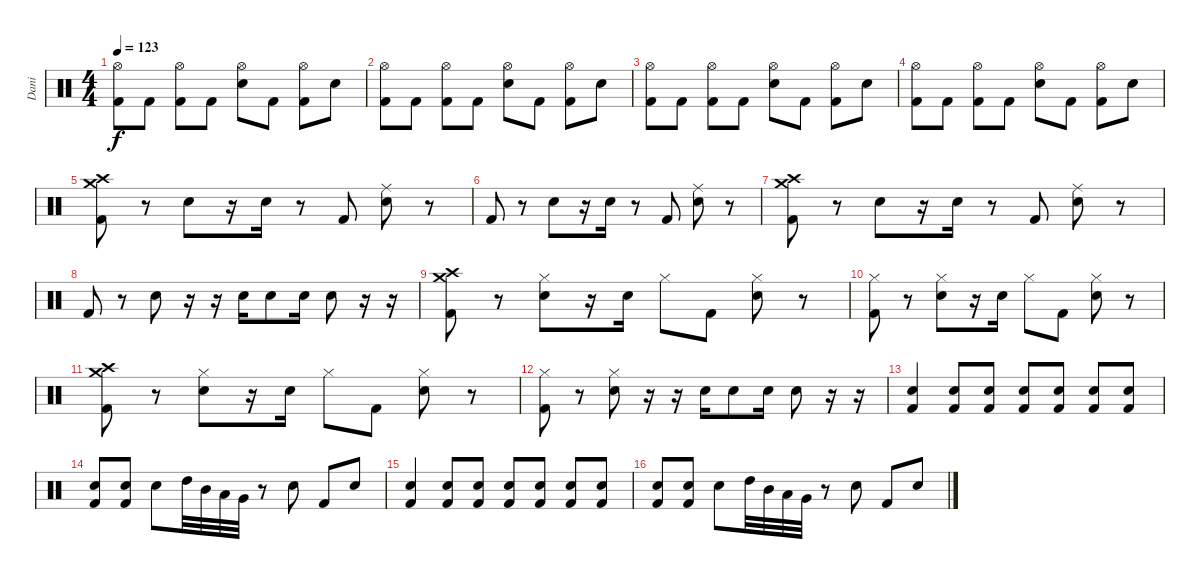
\track ("Dani" "Dani") {instrument percussion}
\staff {score}
\articulation defaults
\ts (4 4)
\tempo 123
\clef neutral
\ks c
("Hi-Hat (open)" "Kick (hit) 2").8{dy f} "Kick (hit) 2".8 ("Hi-Hat (open)" "Kick (hit) 2").8 "Kick (hit) 2".8 ("Hi-Hat (open)" "Electric Snare (hit)").8 "Kick (hit) 2".8 ("Hi-Hat (open)" "Kick (hit) 2").8 "Electric Snare (hit)".8 |
("Hi-Hat (open)" "Kick (hit) 2").8 "Kick (hit) 2".8 ("Hi-Hat (open)" "Kick (hit) 2").8 "Kick (hit) 2".8 ("Hi-Hat (open)" "Electric Snare (hit)").8 "Kick (hit) 2".8 ("Hi-Hat (open)" "Kick (hit) 2").8 "Electric Snare (hit)".8 |
("Hi-Hat (open)" "Kick (hit) 2").8 "Kick (hit) 2".8 ("Hi-Hat (open)" "Kick (hit) 2").8 "Kick (hit) 2".8 ("Hi-Hat (open)" "Electric Snare (hit)").8 "Kick (hit) 2".8 ("Hi-Hat (open)" "Kick (hit) 2").8 "Electric Snare (hit)".8 |
("Hi-Hat (open)" "Kick (hit) 2").8 "Kick (hit) 2".8 ("Hi-Hat (open)" "Kick (hit) 2").8 "Kick (hit) 2".8 ("Hi-Hat (open)" "Electric Snare (hit)").8 "Kick (hit) 2".8 ("Hi-Hat (open)" "Kick (hit) 2").8 "Electric Snare (hit)".8 |
("Crash high (hit)" "Crash medium (hit)" "Kick (hit) 2").8 r.8 "Electric Snare (hit)".8 r.16 "Electric Snare (hit)".16 r.8 "Kick (hit) 2".8 ("Ride (middle)" "Electric Snare (hit)").8 r.8 |
"Kick (hit) 2".8 r.8 "Electric Snare (hit)".8 r.16 "Electric Snare (hit)".16 r.8 "Kick (hit) 2".8 ("Ride (middle)" "Electric Snare (hit)").8 r.8 |
("Crash high (hit)" "Crash medium (hit)" "Kick (hit) 2").8 r.8 "Electric Snare (hit)".8 r.16 "Electric Snare (hit)".16 r.8 "Kick (hit) 2".8 ("Ride (middle)" "Electric Snare (hit)").8 r.8 |
"Kick (hit) 2".8 r.8 "Electric Snare (hit)".8 r.16 r.16 "Electric Snare (hit)".16 "Electric Snare (hit)".8 "Electric Snare (hit)".16 "Electric Snare (hit)".8 r.16 r.16 |
("Crash high (hit)" "Crash medium (hit)" "Kick (hit) 2").8 r.8 ("Hi-Hat (closed)" "Electric Snare (hit)").8 r.16 "Electric Snare (hit)".16 "Hi-Hat (closed)".8 "Kick (hit) 2".8 ("Hi-Hat (closed)" "Electric Snare (hit)").8 r.8 |
("Hi-Hat (closed)" "Kick (hit) 2").8 r.8 ("Hi-Hat (closed)" "Electric Snare (hit)").8 r.16 "Electric Snare (hit)".16 "Hi-Hat (closed)".8 "Kick (hit) 2".8 ("Hi-Hat (closed)" "Electric Snare (hit)").8 r.8 |
("Crash high (hit)" "Crash medium (hit)" "Kick (hit) 2").8 r.8 ("Hi-Hat (closed)" "Electric Snare (hit)").8 r.16 "Electric Snare (hit)".16 "Hi-Hat (closed)".8 "Kick (hit) 2".8 ("Hi-Hat (closed)" "Electric Snare (hit)").8 r.8 |
("Hi-Hat (closed)" "Kick (hit) 2").8 r.8 ("Hi-Hat (closed)" "Electric Snare (hit)").8 r.16 r.16 "Electric Snare (hit)".16 "Electric Snare (hit)".8 "Electric Snare (hit)".16 "Electric Snare (hit)".8 r.16 r.16 |
("Electric Snare (hit)" "Kick (hit) 2").4 ("Electric Snare (hit)" "Kick (hit) 2").8 ("Electric Snare (hit)" "Kick (hit) 2").8 ("Electric Snare (hit)" "Kick (hit) 2").8 ("Electric Snare (hit)" "Kick (hit) 2").8 ("Electric Snare (hit)" "Kick (hit) 2").8 ("Electric Snare (hit)" "Kick (hit) 2").8 |
("Electric Snare (hit)" "Kick (hit) 2").8 ("Electric Snare (hit)" "Kick (hit) 2").8 "Electric Snare (hit)".8 "High Tom (hit)".32 "Mid Tom (hit)".32 "Low Tom (hit)".32 "Very Low Tom (hit)".32 r.8 "Electric Snare (hit)".8 "Kick (hit) 2".8 "Electric Snare (hit)".8 |
("Electric Snare (hit)" "Kick (hit) 2").4 ("Electric Snare (hit)" "Kick (hit) 2").8 ("Electric Snare (hit)" "Kick (hit) 2").8 ("Electric Snare (hit)" "Kick (hit) 2").8 ("Electric Snare (hit)" "Kick (hit) 2").8 ("Electric Snare (hit)" "Kick (hit) 2").8 ("Electric Snare (hit)" "Kick (hit) 2").8 |
("Electric Snare (hit)" "Kick (hit) 2").8 ("Electric Snare (hit)" "Kick (hit) 2").8 "Electric Snare (hit)".8 "High Tom (hit)".32 "Mid Tom (hit)".32 "Low Tom (hit)".32 "Very Low Tom (hit)".32 r.8 "Electric Snare (hit)".8 "Kick (hit) 2".8 "Electric Snare (hit)".8
